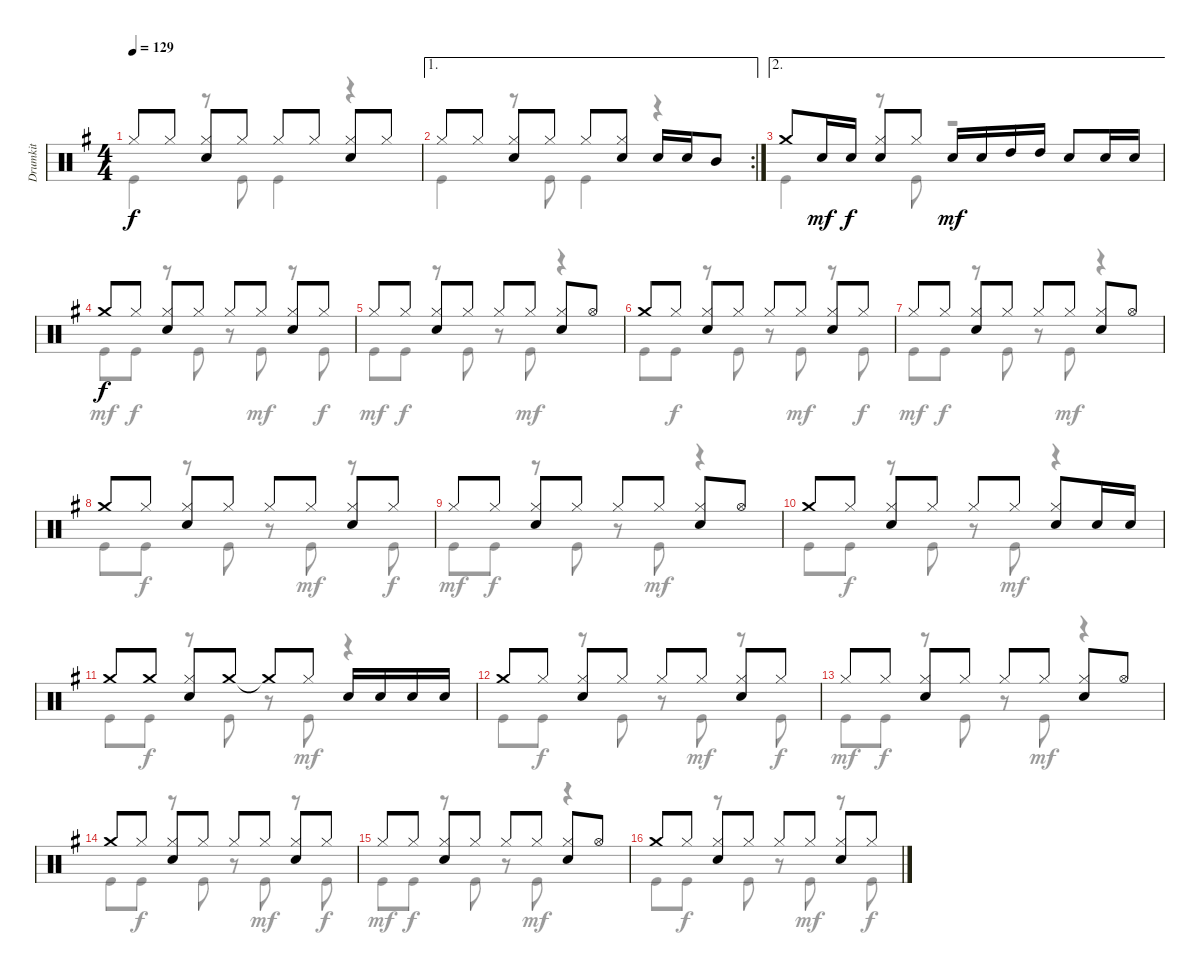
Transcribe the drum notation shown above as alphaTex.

\track ("Drumkit" "Drumkit") {instrument percussion}
\staff {score}
\articulation defaults
\voice
\ts (4 4)
\tempo 129
\clef neutral
\ks g "Hi-Hat (closed)".8{dy f} "Hi-Hat (closed)".8
("Hi-Hat (closed)" "Snare (hit) 2").8 "Hi-Hat (closed)".8 "Hi-Hat (closed)".8 "Hi-Hat (closed)".8 ("Hi-Hat (closed)" "Snare (hit) 2").8 "Hi-Hat (closed)".8 |
\ae 1
\rc 2 "Hi-Hat (closed)".8 "Hi-Hat (closed)".8
("Hi-Hat (closed)" "Snare (hit) 2").8 "Hi-Hat (closed)".8 "Hi-Hat (closed)".8 ("Snare (hit) 2" "Hi-Hat (closed)").8 "Snare (hit) 2".16 "Snare (hit) 2".16 "Mid Tom (hit)".8 |
\ae 2 "Crash medium (hit)".8 "Snare (hit) 2".16{dy mf} "Snare (hit) 2".16{dy f}
("Hi-Hat (closed)" "Snare (hit) 2").8 "Hi-Hat (closed)".8 "Snare (hit) 2".16{dy mf} "Snare (hit) 2".16 "High Tom (hit)".16 "High Tom (hit)".16 "Snare (hit) 2".8 "Snare (hit) 2".16 "Snare (hit) 2".16 |
"Crash medium (hit)".8{dy f} "Hi-Hat (closed)".8 ("Hi-Hat (closed)" "Snare (hit) 2").8 "Hi-Hat (closed)".8 "Hi-Hat (closed)".8 "Hi-Hat (closed)".8 ("Hi-Hat (closed)" "Snare (hit) 2").8 "Hi-Hat (closed)".8 |
"Hi-Hat (closed)".8 "Hi-Hat (closed)".8 ("Hi-Hat (closed)" "Snare (hit) 2").8 "Hi-Hat (closed)".8 "Hi-Hat (closed)".8 "Hi-Hat (closed)".8 ("Hi-Hat (closed)" "Snare (hit) 2").8 "Hi-Hat (open)".8 |
"Crash medium (hit)".8 "Hi-Hat (closed)".8 ("Hi-Hat (closed)" "Snare (hit) 2").8 "Hi-Hat (closed)".8 "Hi-Hat (closed)".8 "Hi-Hat (closed)".8 ("Hi-Hat (closed)" "Snare (hit) 2").8 "Hi-Hat (closed)".8 |
"Hi-Hat (closed)".8 "Hi-Hat (closed)".8 ("Hi-Hat (closed)" "Snare (hit) 2").8 "Hi-Hat (closed)".8 "Hi-Hat (closed)".8 "Hi-Hat (closed)".8 ("Hi-Hat (closed)" "Snare (hit) 2").8 "Hi-Hat (open)".8 |
"Crash medium (hit)".8 "Hi-Hat (closed)".8 ("Hi-Hat (closed)" "Snare (hit) 2").8 "Hi-Hat (closed)".8 "Hi-Hat (closed)".8 "Hi-Hat (closed)".8 ("Hi-Hat (closed)" "Snare (hit) 2").8 "Hi-Hat (closed)".8 |
"Hi-Hat (closed)".8 "Hi-Hat (closed)".8 ("Hi-Hat (closed)" "Snare (hit) 2").8 "Hi-Hat (closed)".8 "Hi-Hat (closed)".8 "Hi-Hat (closed)".8 ("Hi-Hat (closed)" "Snare (hit) 2").8 "Hi-Hat (open)".8 |
"Crash medium (hit)".8 "Hi-Hat (closed)".8 ("Hi-Hat (closed)" "Snare (hit) 2").8 "Hi-Hat (closed)".8 "Hi-Hat (closed)".8 "Hi-Hat (closed)".8 ("Hi-Hat (closed)" "Snare (hit) 2").8 "Snare (hit) 2".16 "Snare (hit) 2".16 |
"Crash medium (hit)".8 "Crash medium (hit)".8 ("Hi-Hat (closed)" "Snare (hit) 2").8 "Crash medium (hit)".8 "Crash medium (hit)"{t}.8 "Hi-Hat (closed)".8 "Snare (hit) 2".16 "Snare (hit) 2".16 "Snare (hit) 2".16 "Snare (hit) 2".16 |
"Crash medium (hit)".8 "Hi-Hat (closed)".8 ("Hi-Hat (closed)" "Snare (hit) 2").8 "Hi-Hat (closed)".8 "Hi-Hat (closed)".8 "Hi-Hat (closed)".8 ("Hi-Hat (closed)" "Snare (hit) 2").8 "Hi-Hat (closed)".8 |
"Hi-Hat (closed)".8 "Hi-Hat (closed)".8 ("Hi-Hat (closed)" "Snare (hit) 2").8 "Hi-Hat (closed)".8 "Hi-Hat (closed)".8 "Hi-Hat (closed)".8 ("Hi-Hat (closed)" "Snare (hit) 2").8 "Hi-Hat (open)".8 |
"Crash medium (hit)".8 "Hi-Hat (closed)".8 ("Hi-Hat (closed)" "Snare (hit) 2").8 "Hi-Hat (closed)".8 "Hi-Hat (closed)".8 "Hi-Hat (closed)".8 ("Hi-Hat (closed)" "Snare (hit) 2").8 "Hi-Hat (closed)".8 |
"Hi-Hat (closed)".8 "Hi-Hat (closed)".8 ("Hi-Hat (closed)" "Snare (hit) 2").8 "Hi-Hat (closed)".8 "Hi-Hat (closed)".8 "Hi-Hat (closed)".8 ("Hi-Hat (closed)" "Snare (hit) 2").8 "Hi-Hat (open)".8 |
"Crash medium (hit)".8 "Hi-Hat (closed)".8 ("Hi-Hat (closed)" "Snare (hit) 2").8 "Hi-Hat (closed)".8 "Hi-Hat (closed)".8 "Hi-Hat (closed)".8 ("Hi-Hat (closed)" "Snare (hit) 2").8 "Hi-Hat (closed)".8
\voice
\clef neutral
\ottava regular
\simile none
\ks g "Kick (hit)".4{dy f}
r.8 "Kick (hit)".8 "Kick (hit)".4 r.4 |
"Kick (hit)".4 r.8 "Kick (hit)".8 "Kick (hit)".4 r.4 |
"Kick (hit)".4 r.8 "Kick (hit)".8 r.2 |
"Kick (hit)".8{dy mf} "Kick (hit)".8{dy f} r.8 "Kick (hit)".8 r.8 "Kick (hit)".8{dy mf} r.8 "Kick (hit)".8{dy f} |
"Kick (hit)".8{dy mf} "Kick (hit)".8{dy f} r.8 "Kick (hit)".8 r.8 "Kick (hit)".8{dy mf} r.4 |
"Kick (hit)".8 "Kick (hit)".8{dy f} r.8 "Kick (hit)".8 r.8 "Kick (hit)".8{dy mf} r.8 "Kick (hit)".8{dy f} |
"Kick (hit)".8{dy mf} "Kick (hit)".8{dy f} r.8 "Kick (hit)".8 r.8 "Kick (hit)".8{dy mf} r.4 |
"Kick (hit)".8 "Kick (hit)".8{dy f} r.8 "Kick (hit)".8 r.8 "Kick (hit)".8{dy mf} r.8 "Kick (hit)".8{dy f} |
"Kick (hit)".8{dy mf} "Kick (hit)".8{dy f} r.8 "Kick (hit)".8 r.8 "Kick (hit)".8{dy mf} r.4 |
"Kick (hit)".8 "Kick (hit)".8{dy f} r.8 "Kick (hit)".8 r.8 "Kick (hit)".8{dy mf} r.4 |
"Kick (hit)".8 "Kick (hit)".8{dy f} r.8 "Kick (hit)".8 r.8 "Kick (hit)".8{dy mf} r.4 |
"Kick (hit)".8 "Kick (hit)".8{dy f} r.8 "Kick (hit)".8 r.8 "Kick (hit)".8{dy mf} r.8 "Kick (hit)".8{dy f} |
"Kick (hit)".8{dy mf} "Kick (hit)".8{dy f} r.8 "Kick (hit)".8 r.8 "Kick (hit)".8{dy mf} r.4 |
"Kick (hit)".8 "Kick (hit)".8{dy f} r.8 "Kick (hit)".8 r.8 "Kick (hit)".8{dy mf} r.8 "Kick (hit)".8{dy f} |
"Kick (hit)".8{dy mf} "Kick (hit)".8{dy f} r.8 "Kick (hit)".8 r.8 "Kick (hit)".8{dy mf} r.4 |
"Kick (hit)".8 "Kick (hit)".8{dy f} r.8 "Kick (hit)".8 r.8 "Kick (hit)".8{dy mf} r.8 "Kick (hit)".8{dy f}
